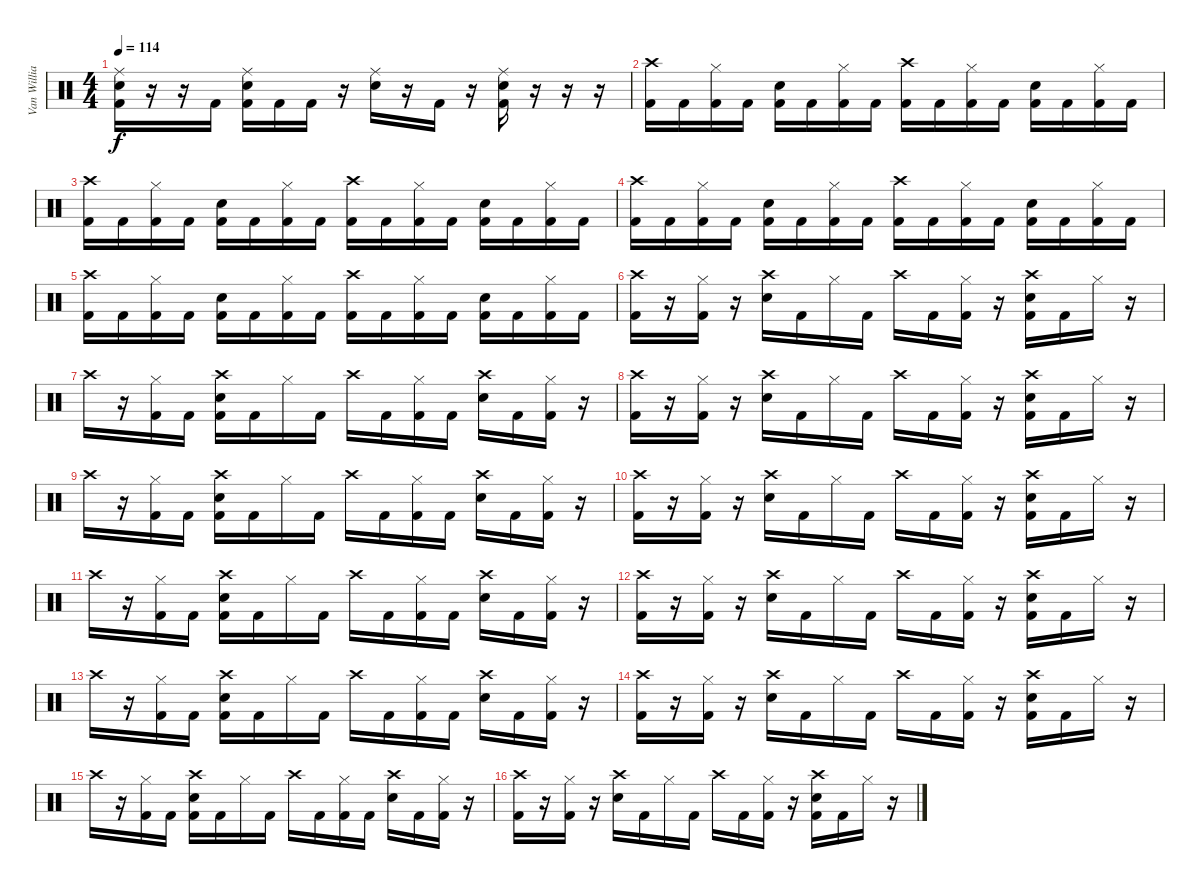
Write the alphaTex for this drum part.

\track ("Van Williams (Drums)" "Van Willia") {instrument percussion}
\staff {score}
\articulation defaults
\ts (4 4)
\tempo 114
\clef neutral
\ks c
("Ride (middle)" "Snare (hit) 2" "Kick (hit) 2").16{dy f} r.16 r.16 "Kick (hit) 2".16 ("Ride (middle)" "Snare (hit) 2" "Kick (hit) 2").16 "Kick (hit) 2".16 "Kick (hit) 2".16 r.16 ("Ride (middle)" "Snare (hit) 2").16 r.16 "Kick (hit) 2".16 r.16 ("Ride (middle)" "Snare (hit) 2" "Kick (hit) 2").16 r.16 r.16 r.16 |
("Crash high (hit)" "Kick (hit) 2").16 "Kick (hit) 2".16 ("Hi-Hat (closed)" "Kick (hit) 2").16 "Kick (hit) 2".16 ("Snare (hit) 2" "Kick (hit) 2").16 "Kick (hit) 2".16 ("Hi-Hat (closed)" "Kick (hit) 2").16 "Kick (hit) 2".16 ("Crash high (hit)" "Kick (hit) 2").16 "Kick (hit) 2".16 ("Hi-Hat (closed)" "Kick (hit) 2").16 "Kick (hit) 2".16 ("Snare (hit) 2" "Kick (hit) 2").16 "Kick (hit) 2".16 ("Hi-Hat (closed)" "Kick (hit) 2").16 "Kick (hit) 2".16 |
("Crash high (hit)" "Kick (hit) 2").16 "Kick (hit) 2".16 ("Hi-Hat (closed)" "Kick (hit) 2").16 "Kick (hit) 2".16 ("Snare (hit) 2" "Kick (hit) 2").16 "Kick (hit) 2".16 ("Hi-Hat (closed)" "Kick (hit) 2").16 "Kick (hit) 2".16 ("Crash high (hit)" "Kick (hit) 2").16 "Kick (hit) 2".16 ("Hi-Hat (closed)" "Kick (hit) 2").16 "Kick (hit) 2".16 ("Snare (hit) 2" "Kick (hit) 2").16 "Kick (hit) 2".16 ("Hi-Hat (closed)" "Kick (hit) 2").16 "Kick (hit) 2".16 |
("Crash high (hit)" "Kick (hit) 2").16 "Kick (hit) 2".16 ("Hi-Hat (closed)" "Kick (hit) 2").16 "Kick (hit) 2".16 ("Snare (hit) 2" "Kick (hit) 2").16 "Kick (hit) 2".16 ("Hi-Hat (closed)" "Kick (hit) 2").16 "Kick (hit) 2".16 ("Crash high (hit)" "Kick (hit) 2").16 "Kick (hit) 2".16 ("Hi-Hat (closed)" "Kick (hit) 2").16 "Kick (hit) 2".16 ("Snare (hit) 2" "Kick (hit) 2").16 "Kick (hit) 2".16 ("Hi-Hat (closed)" "Kick (hit) 2").16 "Kick (hit) 2".16 |
("Crash high (hit)" "Kick (hit) 2").16 "Kick (hit) 2".16 ("Hi-Hat (closed)" "Kick (hit) 2").16 "Kick (hit) 2".16 ("Snare (hit) 2" "Kick (hit) 2").16 "Kick (hit) 2".16 ("Hi-Hat (closed)" "Kick (hit) 2").16 "Kick (hit) 2".16 ("Crash high (hit)" "Kick (hit) 2").16 "Kick (hit) 2".16 ("Hi-Hat (closed)" "Kick (hit) 2").16 "Kick (hit) 2".16 ("Snare (hit) 2" "Kick (hit) 2").16 "Kick (hit) 2".16 ("Hi-Hat (closed)" "Kick (hit) 2").16 "Kick (hit) 2".16 |
("Crash high (hit)" "Kick (hit) 2").16 r.16 ("Hi-Hat (closed)" "Kick (hit) 2").16 r.16 ("Snare (hit) 2" "Crash high (hit)").16 "Kick (hit) 2".16 "Hi-Hat (closed)".16 "Kick (hit) 2".16 "Crash high (hit)".16 "Kick (hit) 2".16 ("Hi-Hat (closed)" "Kick (hit) 2").16 r.16 ("Snare (hit) 2" "Crash high (hit)" "Kick (hit) 2").16 "Kick (hit) 2".16 "Hi-Hat (closed)".16 r.16 |
"Crash high (hit)".16 r.16 ("Hi-Hat (closed)" "Kick (hit) 2").16 "Kick (hit) 2".16 ("Snare (hit) 2" "Crash high (hit)" "Kick (hit) 2").16 "Kick (hit) 2".16 "Hi-Hat (closed)".16 "Kick (hit) 2".16 "Crash high (hit)".16 "Kick (hit) 2".16 ("Hi-Hat (closed)" "Kick (hit) 2").16 "Kick (hit) 2".16 ("Snare (hit) 2" "Crash high (hit)").16 "Kick (hit) 2".16 ("Hi-Hat (closed)" "Kick (hit) 2").16 r.16 |
("Crash high (hit)" "Kick (hit) 2").16 r.16 ("Hi-Hat (closed)" "Kick (hit) 2").16 r.16 ("Snare (hit) 2" "Crash high (hit)").16 "Kick (hit) 2".16 "Hi-Hat (closed)".16 "Kick (hit) 2".16 "Crash high (hit)".16 "Kick (hit) 2".16 ("Hi-Hat (closed)" "Kick (hit) 2").16 r.16 ("Snare (hit) 2" "Crash high (hit)" "Kick (hit) 2").16 "Kick (hit) 2".16 "Hi-Hat (closed)".16 r.16 |
"Crash high (hit)".16 r.16 ("Hi-Hat (closed)" "Kick (hit) 2").16 "Kick (hit) 2".16 ("Snare (hit) 2" "Crash high (hit)" "Kick (hit) 2").16 "Kick (hit) 2".16 "Hi-Hat (closed)".16 "Kick (hit) 2".16 "Crash high (hit)".16 "Kick (hit) 2".16 ("Hi-Hat (closed)" "Kick (hit) 2").16 "Kick (hit) 2".16 ("Snare (hit) 2" "Crash high (hit)").16 "Kick (hit) 2".16 ("Hi-Hat (closed)" "Kick (hit) 2").16 r.16 |
("Crash high (hit)" "Kick (hit) 2").16 r.16 ("Hi-Hat (closed)" "Kick (hit) 2").16 r.16 ("Snare (hit) 2" "Crash high (hit)").16 "Kick (hit) 2".16 "Hi-Hat (closed)".16 "Kick (hit) 2".16 "Crash high (hit)".16 "Kick (hit) 2".16 ("Hi-Hat (closed)" "Kick (hit) 2").16 r.16 ("Snare (hit) 2" "Crash high (hit)" "Kick (hit) 2").16 "Kick (hit) 2".16 "Hi-Hat (closed)".16 r.16 |
"Crash high (hit)".16 r.16 ("Hi-Hat (closed)" "Kick (hit) 2").16 "Kick (hit) 2".16 ("Snare (hit) 2" "Crash high (hit)" "Kick (hit) 2").16 "Kick (hit) 2".16 "Hi-Hat (closed)".16 "Kick (hit) 2".16 "Crash high (hit)".16 "Kick (hit) 2".16 ("Hi-Hat (closed)" "Kick (hit) 2").16 "Kick (hit) 2".16 ("Snare (hit) 2" "Crash high (hit)").16 "Kick (hit) 2".16 ("Hi-Hat (closed)" "Kick (hit) 2").16 r.16 |
("Crash high (hit)" "Kick (hit) 2").16 r.16 ("Hi-Hat (closed)" "Kick (hit) 2").16 r.16 ("Snare (hit) 2" "Crash high (hit)").16 "Kick (hit) 2".16 "Hi-Hat (closed)".16 "Kick (hit) 2".16 "Crash high (hit)".16 "Kick (hit) 2".16 ("Hi-Hat (closed)" "Kick (hit) 2").16 r.16 ("Snare (hit) 2" "Crash high (hit)" "Kick (hit) 2").16 "Kick (hit) 2".16 "Hi-Hat (closed)".16 r.16 |
"Crash high (hit)".16 r.16 ("Hi-Hat (closed)" "Kick (hit) 2").16 "Kick (hit) 2".16 ("Snare (hit) 2" "Crash high (hit)" "Kick (hit) 2").16 "Kick (hit) 2".16 "Hi-Hat (closed)".16 "Kick (hit) 2".16 "Crash high (hit)".16 "Kick (hit) 2".16 ("Hi-Hat (closed)" "Kick (hit) 2").16 "Kick (hit) 2".16 ("Snare (hit) 2" "Crash high (hit)").16 "Kick (hit) 2".16 ("Hi-Hat (closed)" "Kick (hit) 2").16 r.16 |
("Crash high (hit)" "Kick (hit) 2").16 r.16 ("Hi-Hat (closed)" "Kick (hit) 2").16 r.16 ("Snare (hit) 2" "Crash high (hit)").16 "Kick (hit) 2".16 "Hi-Hat (closed)".16 "Kick (hit) 2".16 "Crash high (hit)".16 "Kick (hit) 2".16 ("Hi-Hat (closed)" "Kick (hit) 2").16 r.16 ("Snare (hit) 2" "Crash high (hit)" "Kick (hit) 2").16 "Kick (hit) 2".16 "Hi-Hat (closed)".16 r.16 |
"Crash high (hit)".16 r.16 ("Hi-Hat (closed)" "Kick (hit) 2").16 "Kick (hit) 2".16 ("Snare (hit) 2" "Crash high (hit)" "Kick (hit) 2").16 "Kick (hit) 2".16 "Hi-Hat (closed)".16 "Kick (hit) 2".16 "Crash high (hit)".16 "Kick (hit) 2".16 ("Hi-Hat (closed)" "Kick (hit) 2").16 "Kick (hit) 2".16 ("Snare (hit) 2" "Crash high (hit)").16 "Kick (hit) 2".16 ("Hi-Hat (closed)" "Kick (hit) 2").16 r.16 |
("Crash high (hit)" "Kick (hit) 2").16 r.16 ("Hi-Hat (closed)" "Kick (hit) 2").16 r.16 ("Snare (hit) 2" "Crash high (hit)").16 "Kick (hit) 2".16 "Hi-Hat (closed)".16 "Kick (hit) 2".16 "Crash high (hit)".16 "Kick (hit) 2".16 ("Hi-Hat (closed)" "Kick (hit) 2").16 r.16 ("Snare (hit) 2" "Crash high (hit)" "Kick (hit) 2").16 "Kick (hit) 2".16 "Hi-Hat (closed)".16 r.16
